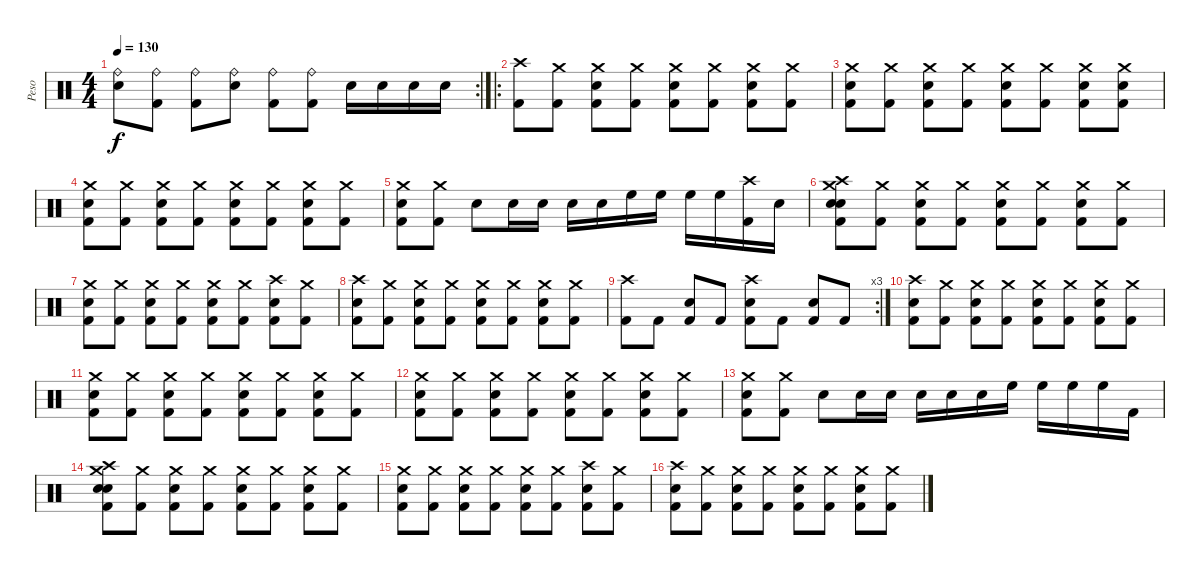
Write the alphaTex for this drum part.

\track ("Peso" "Peso") {instrument percussion}
\staff {score}
\articulation defaults
\rc 2
\ts (4 4)
\tempo 130
\clef neutral
\ks c
("Ride (bell)" "Snare (hit) 2").8{dy f} ("Ride (bell)" "Kick (hit) 2").8 ("Ride (bell)" "Kick (hit) 2").8 ("Ride (bell)" "Snare (hit) 2").8 ("Ride (bell)" "Kick (hit) 2").8 ("Ride (bell)" "Kick (hit) 2").8 "Snare (hit) 2".16 "Snare (hit) 2".16 "Snare (hit) 2".16 "Snare (hit) 2".16 |
\ro
("Crash high (hit)" "Kick (hit) 2").8 ("Crash medium (hit)" "Kick (hit) 2").8 ("Crash medium (hit)" "Snare (hit) 2" "Kick (hit) 2").8 ("Crash medium (hit)" "Kick (hit) 2").8 ("Crash medium (hit)" "Snare (hit) 2" "Kick (hit) 2").8 ("Crash medium (hit)" "Kick (hit) 2").8 ("Crash medium (hit)" "Snare (hit) 2" "Kick (hit) 2").8 ("Crash medium (hit)" "Kick (hit) 2").8 |
("Crash medium (hit)" "Snare (hit) 2" "Kick (hit) 2").8 ("Crash medium (hit)" "Kick (hit) 2").8 ("Crash medium (hit)" "Snare (hit) 2" "Kick (hit) 2").8 ("Crash medium (hit)" "Kick (hit) 2").8 ("Crash medium (hit)" "Snare (hit) 2" "Kick (hit) 2").8 ("Crash medium (hit)" "Kick (hit) 2").8 ("Crash medium (hit)" "Snare (hit) 2" "Kick (hit) 2").8 ("Crash medium (hit)" "Snare (hit) 2" "Kick (hit) 2").8 |
("Crash medium (hit)" "Snare (hit) 2" "Kick (hit) 2").8 ("Crash medium (hit)" "Kick (hit) 2").8 ("Crash medium (hit)" "Snare (hit) 2" "Kick (hit) 2").8 ("Crash medium (hit)" "Kick (hit) 2").8 ("Crash medium (hit)" "Snare (hit) 2" "Kick (hit) 2").8 ("Crash medium (hit)" "Kick (hit) 2").8 ("Crash medium (hit)" "Snare (hit) 2" "Kick (hit) 2").8 ("Crash medium (hit)" "Kick (hit) 2").8 |
("Crash medium (hit)" "Snare (hit) 2" "Kick (hit) 2").8 ("Crash medium (hit)" "Kick (hit) 2").8 "Snare (hit) 2".8 "Snare (hit) 2".16 "Snare (hit) 2".16 "Snare (hit) 2".16 "Snare (hit) 2".16 "High Floor Tom (hit)".16 "High Floor Tom (hit)".16 "High Floor Tom (hit)".16 "High Floor Tom (hit)".16 ("Crash high (hit)" "Kick (hit) 2").16 "Snare (hit)"{x}.16 |
("Crash high (hit)" "Crash medium (hit)" "Snare (hit) 2" "Kick (hit) 2" "Snare (hit)").8 ("Crash medium (hit)" "Kick (hit) 2").8 ("Crash medium (hit)" "Snare (hit) 2" "Kick (hit) 2").8 ("Crash medium (hit)" "Kick (hit) 2").8 ("Crash medium (hit)" "Snare (hit) 2" "Kick (hit) 2").8 ("Crash medium (hit)" "Kick (hit) 2").8 ("Crash medium (hit)" "Snare (hit) 2" "Kick (hit) 2").8 ("Crash medium (hit)" "Kick (hit) 2").8 |
("Crash medium (hit)" "Snare (hit) 2" "Kick (hit) 2").8 ("Crash medium (hit)" "Kick (hit) 2").8 ("Crash medium (hit)" "Snare (hit) 2" "Kick (hit) 2").8 ("Crash medium (hit)" "Kick (hit) 2").8 ("Crash medium (hit)" "Snare (hit) 2" "Kick (hit) 2").8 ("Crash medium (hit)" "Kick (hit) 2").8 ("Crash high (hit)" "Snare (hit) 2" "Kick (hit) 2").8 ("Crash medium (hit)" "Kick (hit) 2").8 |
("Crash high (hit)" "Snare (hit) 2" "Kick (hit) 2").8 ("Crash medium (hit)" "Kick (hit) 2").8 ("Crash medium (hit)" "Snare (hit) 2" "Kick (hit) 2").8 ("Crash medium (hit)" "Kick (hit) 2").8 ("Crash medium (hit)" "Snare (hit) 2" "Kick (hit) 2").8 ("Crash medium (hit)" "Kick (hit) 2").8 ("Crash medium (hit)" "Snare (hit) 2" "Kick (hit) 2").8 ("Crash medium (hit)" "Kick (hit) 2").8 |
\rc 3
("Crash high (hit)" "Kick (hit) 2").8 "Kick (hit) 2".8 ("Snare (hit) 2" "Kick (hit) 2").8 "Kick (hit) 2".8 ("Crash high (hit)" "Snare (hit) 2" "Kick (hit) 2").8 "Kick (hit) 2".8 ("Snare (hit) 2" "Kick (hit) 2").8 "Kick (hit) 2".8 |
("Crash high (hit)" "Snare (hit) 2" "Kick (hit) 2").8 ("Crash medium (hit)" "Kick (hit) 2").8 ("Crash medium (hit)" "Snare (hit) 2" "Kick (hit) 2").8 ("Crash medium (hit)" "Kick (hit) 2").8 ("Crash medium (hit)" "Snare (hit) 2" "Kick (hit) 2").8 ("Crash medium (hit)" "Kick (hit) 2").8 ("Crash medium (hit)" "Snare (hit) 2" "Kick (hit) 2").8 ("Crash medium (hit)" "Kick (hit) 2").8 |
("Crash medium (hit)" "Snare (hit) 2" "Kick (hit) 2").8 ("Crash medium (hit)" "Kick (hit) 2").8 ("Crash medium (hit)" "Snare (hit) 2" "Kick (hit) 2").8 ("Crash medium (hit)" "Kick (hit) 2").8 ("Crash medium (hit)" "Snare (hit) 2" "Kick (hit) 2").8 ("Crash medium (hit)" "Kick (hit) 2").8 ("Crash medium (hit)" "Snare (hit) 2" "Kick (hit) 2").8 ("Crash medium (hit)" "Kick (hit) 2").8 |
("Crash medium (hit)" "Snare (hit) 2" "Kick (hit) 2").8 ("Crash medium (hit)" "Kick (hit) 2").8 ("Crash medium (hit)" "Snare (hit) 2" "Kick (hit) 2").8 ("Crash medium (hit)" "Kick (hit) 2").8 ("Crash medium (hit)" "Snare (hit) 2" "Kick (hit) 2").8 ("Crash medium (hit)" "Kick (hit) 2").8 ("Crash medium (hit)" "Snare (hit) 2" "Kick (hit) 2").8 ("Crash medium (hit)" "Kick (hit) 2").8 |
("Crash medium (hit)" "Snare (hit) 2" "Kick (hit) 2").8 ("Crash medium (hit)" "Kick (hit) 2").8 "Snare (hit) 2".8 "Snare (hit) 2".16 "Snare (hit) 2".16 "Snare (hit) 2".16 "Snare (hit) 2".16 "Snare (hit) 2".16 "High Floor Tom (hit)".16 "High Floor Tom (hit)".16 "High Floor Tom (hit)".16 "High Floor Tom (hit)".16 "Kick (hit) 2".16 |
("Crash high (hit)" "Crash medium (hit)" "Snare (hit) 2" "Kick (hit) 2" "Snare (hit)").8 ("Crash medium (hit)" "Kick (hit) 2").8 ("Crash medium (hit)" "Snare (hit) 2" "Kick (hit) 2").8 ("Crash medium (hit)" "Kick (hit) 2").8 ("Crash medium (hit)" "Snare (hit) 2" "Kick (hit) 2").8 ("Crash medium (hit)" "Kick (hit) 2").8 ("Crash medium (hit)" "Snare (hit) 2" "Kick (hit) 2").8 ("Crash medium (hit)" "Kick (hit) 2").8 |
("Crash medium (hit)" "Snare (hit) 2" "Kick (hit) 2").8 ("Crash medium (hit)" "Kick (hit) 2").8 ("Crash medium (hit)" "Snare (hit) 2" "Kick (hit) 2").8 ("Crash medium (hit)" "Kick (hit) 2").8 ("Crash medium (hit)" "Snare (hit) 2" "Kick (hit) 2").8 ("Crash medium (hit)" "Kick (hit) 2").8 ("Crash high (hit)" "Snare (hit) 2" "Kick (hit) 2").8 ("Crash medium (hit)" "Kick (hit) 2").8 |
("Crash high (hit)" "Snare (hit) 2" "Kick (hit) 2").8 ("Crash medium (hit)" "Kick (hit) 2").8 ("Crash medium (hit)" "Snare (hit) 2" "Kick (hit) 2").8 ("Crash medium (hit)" "Kick (hit) 2").8 ("Crash medium (hit)" "Snare (hit) 2" "Kick (hit) 2").8 ("Crash medium (hit)" "Kick (hit) 2").8 ("Crash medium (hit)" "Snare (hit) 2" "Kick (hit) 2").8 ("Crash medium (hit)" "Kick (hit) 2").8
